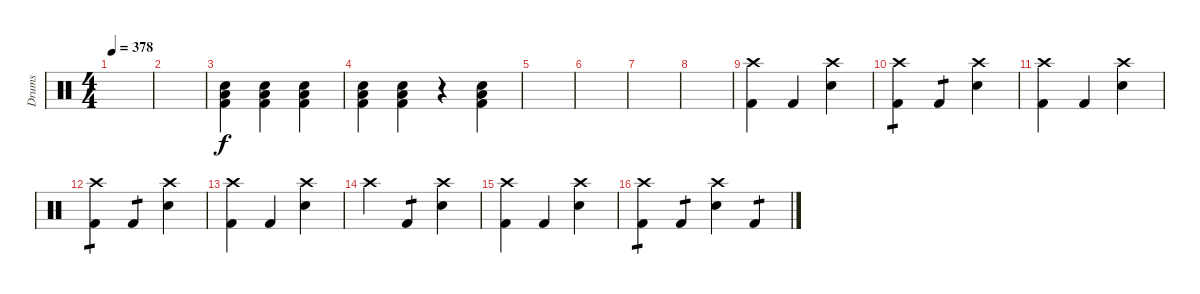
\track ("Drums" "Drums") {instrument percussion}
\staff {score}
\articulation defaults
\ts (4 4)
\tempo 378
\clef neutral
\ks c
|
|
("Low Floor Tom (hit)" "Kick (hit) 2" "Electric Snare (hit)").4 ("Low Floor Tom (hit)" "Kick (hit) 2" "Electric Snare (hit)").4 ("Low Floor Tom (hit)" "Kick (hit) 2" "Electric Snare (hit)").4 |
("Low Floor Tom (hit)" "Kick (hit) 2" "Electric Snare (hit)").4 ("Low Floor Tom (hit)" "Kick (hit) 2" "Electric Snare (hit)").4 r.4 ("Low Floor Tom (hit)" "Kick (hit) 2" "Electric Snare (hit)").4 |
|
|
|
|
("Crash high (hit)" "Kick (hit) 2").4 "Kick (hit) 2".4 ("Crash high (hit)" "Electric Snare (hit)").4 |
("Crash high (hit)" "Kick (hit) 2").4{tp 1} "Kick (hit) 2".4{tp 1} ("Crash high (hit)" "Electric Snare (hit)").4 |
("Crash high (hit)" "Kick (hit) 2").4 "Kick (hit) 2".4 ("Crash high (hit)" "Electric Snare (hit)").4 |
("Crash high (hit)" "Kick (hit) 2").4{tp 1} "Kick (hit) 2".4{tp 1} ("Crash high (hit)" "Electric Snare (hit)").4 |
("Crash high (hit)" "Kick (hit) 2").4 "Kick (hit) 2".4 ("Crash high (hit)" "Electric Snare (hit)").4 |
"Crash high (hit)".4 "Kick (hit) 2".4{tp 1} ("Crash high (hit)" "Electric Snare (hit)").4 |
("Crash high (hit)" "Kick (hit) 2").4 "Kick (hit) 2".4 ("Crash high (hit)" "Electric Snare (hit)").4 |
("Crash high (hit)" "Kick (hit) 2").4{tp 1} "Kick (hit) 2".4{tp 1} ("Crash high (hit)" "Electric Snare (hit)").4 "Kick (hit) 2".4{tp 1}
